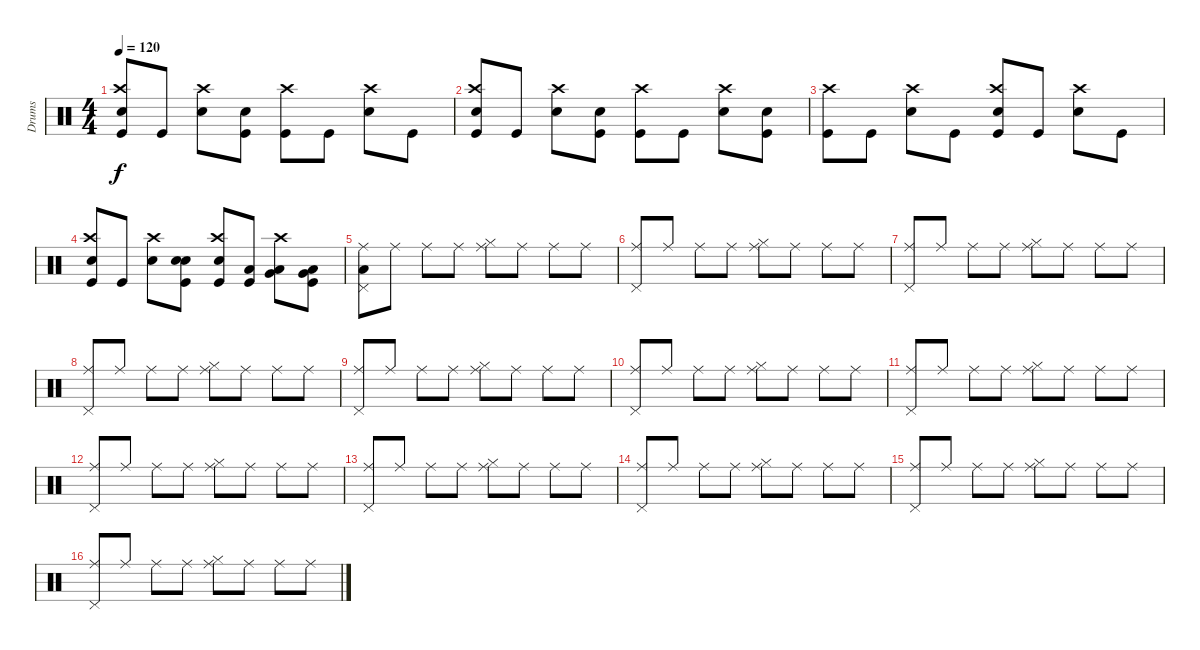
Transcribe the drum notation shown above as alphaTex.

\track ("Drums" "Drums") {instrument percussion}
\staff {score}
\articulation defaults
\ts (4 4)
\tempo 120
\clef neutral
\ks c
("Electric Snare (hit)" "Crash high (hit)" "Kick (hit)").8{dy f} "Kick (hit)".8 ("Electric Snare (hit)" "Crash high (hit)").8 ("Kick (hit)" "Electric Snare (hit)").8 ("Crash high (hit)" "Kick (hit)").8 "Kick (hit)".8 ("Crash high (hit)" "Electric Snare (hit)").8 "Kick (hit)".8 |
("Electric Snare (hit)" "Crash high (hit)" "Kick (hit)").8 "Kick (hit)".8 ("Crash high (hit)" "Electric Snare (hit)").8 ("Kick (hit)" "Electric Snare (hit)").8 ("Crash high (hit)" "Kick (hit)").8 "Kick (hit)".8 ("Crash high (hit)" "Electric Snare (hit)").8 ("Kick (hit)" "Electric Snare (hit)").8 |
("Crash high (hit)" "Kick (hit)").8 "Kick (hit)".8 ("Crash high (hit)" "Electric Snare (hit)").8 "Kick (hit)".8 ("Electric Snare (hit)" "Crash high (hit)" "Kick (hit)").8 "Kick (hit)".8 ("Crash high (hit)" "Electric Snare (hit)").8 "Kick (hit)".8 |
("Electric Snare (hit)" "Crash high (hit)" "Kick (hit)").8 "Kick (hit)".8 ("Crash high (hit)" "Electric Snare (hit)").8 ("Kick (hit)" "Electric Snare (hit)" "Electric Snare (hit)").8 ("Electric Snare (hit)" "Crash high (hit)" "Kick (hit)").8 ("Kick (hit)" "Low Tom (hit)").8 ("Low Tom (hit)" "Crash high (hit)" "Very Low Tom (hit)").8 ("Kick (hit)" "Very Low Tom (hit)" "Low Floor Tom (hit)").8 |
("Low Floor Tom (hit)" "Pedal Hi-Hat (hit)" "Ride (middle)").8 "Ride (middle)".8 "Ride (middle)".8 "Ride (middle)".8 ("Ride (middle)" "Hi-Hat (closed)").8 "Ride (middle)".8 "Ride (middle)".8 "Ride (middle)".8 |
("Pedal Hi-Hat (hit)" "Ride (middle)").8 "Ride (middle)".8 "Ride (middle)".8 "Ride (middle)".8 ("Ride (middle)" "Hi-Hat (closed)").8 "Ride (middle)".8 "Ride (middle)".8 "Ride (middle)".8 |
("Pedal Hi-Hat (hit)" "Ride (middle)").8 "Ride (middle)".8 "Ride (middle)".8 "Ride (middle)".8 ("Ride (middle)" "Hi-Hat (closed)").8 "Ride (middle)".8 "Ride (middle)".8 "Ride (middle)".8 |
("Pedal Hi-Hat (hit)" "Ride (middle)").8 "Ride (middle)".8 "Ride (middle)".8 "Ride (middle)".8 ("Ride (middle)" "Hi-Hat (closed)").8 "Ride (middle)".8 "Ride (middle)".8 "Ride (middle)".8 |
("Pedal Hi-Hat (hit)" "Ride (middle)").8 "Ride (middle)".8 "Ride (middle)".8 "Ride (middle)".8 ("Ride (middle)" "Hi-Hat (closed)").8 "Ride (middle)".8 "Ride (middle)".8 "Ride (middle)".8 |
("Pedal Hi-Hat (hit)" "Ride (middle)").8 "Ride (middle)".8 "Ride (middle)".8 "Ride (middle)".8 ("Ride (middle)" "Hi-Hat (closed)").8 "Ride (middle)".8 "Ride (middle)".8 "Ride (middle)".8 |
("Pedal Hi-Hat (hit)" "Ride (middle)").8 "Ride (middle)".8 "Ride (middle)".8 "Ride (middle)".8 ("Ride (middle)" "Hi-Hat (closed)").8 "Ride (middle)".8 "Ride (middle)".8 "Ride (middle)".8 |
("Pedal Hi-Hat (hit)" "Ride (middle)").8 "Ride (middle)".8 "Ride (middle)".8 "Ride (middle)".8 ("Ride (middle)" "Hi-Hat (closed)").8 "Ride (middle)".8 "Ride (middle)".8 "Ride (middle)".8 |
("Pedal Hi-Hat (hit)" "Ride (middle)").8 "Ride (middle)".8 "Ride (middle)".8 "Ride (middle)".8 ("Ride (middle)" "Hi-Hat (closed)").8 "Ride (middle)".8 "Ride (middle)".8 "Ride (middle)".8 |
("Pedal Hi-Hat (hit)" "Ride (middle)").8 "Ride (middle)".8 "Ride (middle)".8 "Ride (middle)".8 ("Ride (middle)" "Hi-Hat (closed)").8 "Ride (middle)".8 "Ride (middle)".8 "Ride (middle)".8 |
("Pedal Hi-Hat (hit)" "Ride (middle)").8 "Ride (middle)".8 "Ride (middle)".8 "Ride (middle)".8 ("Ride (middle)" "Hi-Hat (closed)").8 "Ride (middle)".8 "Ride (middle)".8 "Ride (middle)".8 |
("Pedal Hi-Hat (hit)" "Ride (middle)").8 "Ride (middle)".8 "Ride (middle)".8 "Ride (middle)".8 ("Ride (middle)" "Hi-Hat (closed)").8 "Ride (middle)".8 "Ride (middle)".8 "Ride (middle)".8
